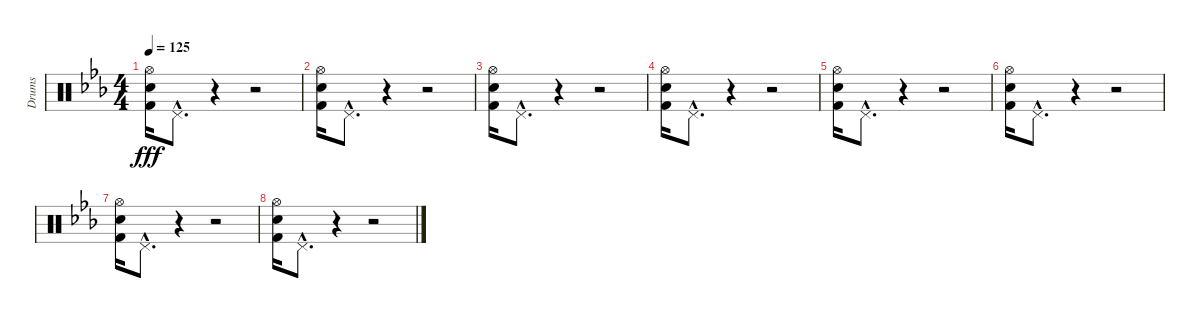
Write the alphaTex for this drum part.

\track ("Drums" "Drums") {instrument percussion}
\staff {score}
\articulation defaults
\ts (4 4)
\tempo 125
\clef neutral
\ks cminor
("Hi-Hat (open)" "Snare (hit) 2" "Kick (hit) 2").16{dy fff} "Pedal Hi-Hat (hit)"{hac}.8{d} r.4 r.2 |
("Hi-Hat (open)" "Snare (hit) 2" "Kick (hit) 2").16 "Pedal Hi-Hat (hit)"{hac}.8{d} r.4 r.2 |
("Hi-Hat (open)" "Snare (hit) 2" "Kick (hit) 2").16 "Pedal Hi-Hat (hit)"{hac}.8{d} r.4 r.2 |
("Hi-Hat (open)" "Snare (hit) 2" "Kick (hit) 2").16 "Pedal Hi-Hat (hit)"{hac}.8{d} r.4 r.2 |
("Hi-Hat (open)" "Snare (hit) 2" "Kick (hit) 2").16 "Pedal Hi-Hat (hit)"{hac}.8{d} r.4 r.2 |
("Hi-Hat (open)" "Snare (hit) 2" "Kick (hit) 2").16 "Pedal Hi-Hat (hit)"{hac}.8{d} r.4 r.2 |
("Hi-Hat (open)" "Snare (hit) 2" "Kick (hit) 2").16 "Pedal Hi-Hat (hit)"{hac}.8{d} r.4 r.2 |
("Hi-Hat (open)" "Snare (hit) 2" "Kick (hit) 2").16 "Pedal Hi-Hat (hit)"{hac}.8{d} r.4 r.2
